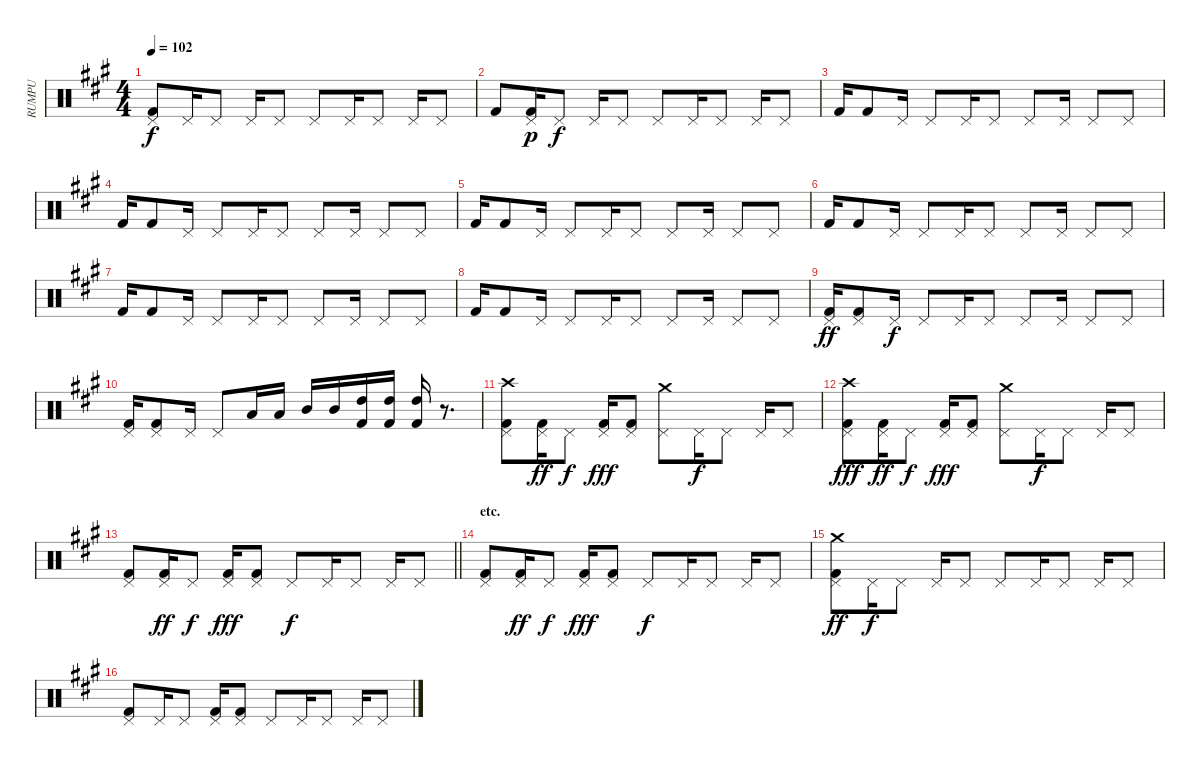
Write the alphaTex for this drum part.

\track ("RUMPU" "RUMPU") {instrument percussion}
\staff {score}
\articulation defaults
\ts (4 4)
\tempo 102
\clef neutral
\ks a
("Kick (hit) 2" "Pedal Hi-Hat (hit)").8{dy f} "Pedal Hi-Hat (hit)".16 "Pedal Hi-Hat (hit)".8 "Pedal Hi-Hat (hit)".16 "Pedal Hi-Hat (hit)".8 "Pedal Hi-Hat (hit)".8 "Pedal Hi-Hat (hit)".16 "Pedal Hi-Hat (hit)".8 "Pedal Hi-Hat (hit)".16 "Pedal Hi-Hat (hit)".8 |
"Kick (hit) 2".8 ("Kick (hit) 2" "Pedal Hi-Hat (hit)").16{dy p} "Pedal Hi-Hat (hit)".8{dy f} "Pedal Hi-Hat (hit)".16 "Pedal Hi-Hat (hit)".8 "Pedal Hi-Hat (hit)".8 "Pedal Hi-Hat (hit)".16 "Pedal Hi-Hat (hit)".8 "Pedal Hi-Hat (hit)".16 "Pedal Hi-Hat (hit)".8 |
"Kick (hit) 2".16 "Kick (hit) 2".8 "Pedal Hi-Hat (hit)".16 "Pedal Hi-Hat (hit)".8 "Pedal Hi-Hat (hit)".16 "Pedal Hi-Hat (hit)".8 "Pedal Hi-Hat (hit)".8 "Pedal Hi-Hat (hit)".16 "Pedal Hi-Hat (hit)".8 "Pedal Hi-Hat (hit)".8 |
"Kick (hit) 2".16 "Kick (hit) 2".8 "Pedal Hi-Hat (hit)".16 "Pedal Hi-Hat (hit)".8 "Pedal Hi-Hat (hit)".16 "Pedal Hi-Hat (hit)".8 "Pedal Hi-Hat (hit)".8 "Pedal Hi-Hat (hit)".16 "Pedal Hi-Hat (hit)".8 "Pedal Hi-Hat (hit)".8 |
"Kick (hit) 2".16 "Kick (hit) 2".8 "Pedal Hi-Hat (hit)".16 "Pedal Hi-Hat (hit)".8 "Pedal Hi-Hat (hit)".16 "Pedal Hi-Hat (hit)".8 "Pedal Hi-Hat (hit)".8 "Pedal Hi-Hat (hit)".16 "Pedal Hi-Hat (hit)".8 "Pedal Hi-Hat (hit)".8 |
"Kick (hit) 2".16 "Kick (hit) 2".8 "Pedal Hi-Hat (hit)".16 "Pedal Hi-Hat (hit)".8 "Pedal Hi-Hat (hit)".16 "Pedal Hi-Hat (hit)".8 "Pedal Hi-Hat (hit)".8 "Pedal Hi-Hat (hit)".16 "Pedal Hi-Hat (hit)".8 "Pedal Hi-Hat (hit)".8 |
"Kick (hit) 2".16 "Kick (hit) 2".8 "Pedal Hi-Hat (hit)".16 "Pedal Hi-Hat (hit)".8 "Pedal Hi-Hat (hit)".16 "Pedal Hi-Hat (hit)".8 "Pedal Hi-Hat (hit)".8 "Pedal Hi-Hat (hit)".16 "Pedal Hi-Hat (hit)".8 "Pedal Hi-Hat (hit)".8 |
"Kick (hit) 2".16 "Kick (hit) 2".8 "Pedal Hi-Hat (hit)".16 "Pedal Hi-Hat (hit)".8 "Pedal Hi-Hat (hit)".16 "Pedal Hi-Hat (hit)".8 "Pedal Hi-Hat (hit)".8 "Pedal Hi-Hat (hit)".16 "Pedal Hi-Hat (hit)".8 "Pedal Hi-Hat (hit)".8 |
("Kick (hit) 2" "Pedal Hi-Hat (hit)").16{dy ff} ("Kick (hit) 2" "Pedal Hi-Hat (hit)").8 "Pedal Hi-Hat (hit)".16{dy f} "Pedal Hi-Hat (hit)".8 "Pedal Hi-Hat (hit)".16 "Pedal Hi-Hat (hit)".8 "Pedal Hi-Hat (hit)".8 "Pedal Hi-Hat (hit)".16 "Pedal Hi-Hat (hit)".8 "Pedal Hi-Hat (hit)".8 |
("Kick (hit) 2" "Pedal Hi-Hat (hit)").16 ("Kick (hit) 2" "Pedal Hi-Hat (hit)").8 "Pedal Hi-Hat (hit)".16 "Pedal Hi-Hat (hit)".8 "Low Tom (hit)".16 "Low Tom (hit)".16 "Mid Tom (hit)".16 "Mid Tom (hit)".16 ("Kick (hit) 2" "High Tom (hit)").16 ("Kick (hit) 2" "High Tom (hit)").16 ("Kick (hit) 2" "High Tom (hit)").16 r.8{d} |
("Crash high (hit)" "Kick (hit) 2" "Pedal Hi-Hat (hit)").8 ("Kick (hit) 2" "Pedal Hi-Hat (hit)").16{dy ff} "Pedal Hi-Hat (hit)".8{dy f} ("Kick (hit) 2" "Pedal Hi-Hat (hit)").16{dy fff} ("Kick (hit) 2" "Pedal Hi-Hat (hit)").8 ("Crash medium (hit)" "Pedal Hi-Hat (hit)").8 "Pedal Hi-Hat (hit)".16{dy f} "Pedal Hi-Hat (hit)".8 "Pedal Hi-Hat (hit)".16 "Pedal Hi-Hat (hit)".8 |
("Crash high (hit)" "Kick (hit) 2" "Pedal Hi-Hat (hit)").8{dy fff} ("Kick (hit) 2" "Pedal Hi-Hat (hit)").16{dy ff} "Pedal Hi-Hat (hit)".8{dy f} ("Kick (hit) 2" "Pedal Hi-Hat (hit)").16{dy fff} ("Kick (hit) 2" "Pedal Hi-Hat (hit)").8 ("Crash medium (hit)" "Pedal Hi-Hat (hit)").8 "Pedal Hi-Hat (hit)".16{dy f} "Pedal Hi-Hat (hit)".8 "Pedal Hi-Hat (hit)".16 "Pedal Hi-Hat (hit)".8 |
\barLineRight lightlight
("Kick (hit) 2" "Pedal Hi-Hat (hit)").8 ("Kick (hit) 2" "Pedal Hi-Hat (hit)").16{dy ff} "Pedal Hi-Hat (hit)".8{dy f} ("Kick (hit) 2" "Pedal Hi-Hat (hit)").16{dy fff} ("Kick (hit) 2" "Pedal Hi-Hat (hit)").8 "Pedal Hi-Hat (hit)".8{dy f} "Pedal Hi-Hat (hit)".16 "Pedal Hi-Hat (hit)".8 "Pedal Hi-Hat (hit)".16 "Pedal Hi-Hat (hit)".8 |
\section ("" "etc.")
("Kick (hit) 2" "Pedal Hi-Hat (hit)").8 ("Kick (hit) 2" "Pedal Hi-Hat (hit)").16{dy ff} "Pedal Hi-Hat (hit)".8{dy f} ("Kick (hit) 2" "Pedal Hi-Hat (hit)").16{dy fff} ("Kick (hit) 2" "Pedal Hi-Hat (hit)").8 "Pedal Hi-Hat (hit)".8{dy f} "Pedal Hi-Hat (hit)".16 "Pedal Hi-Hat (hit)".8 "Pedal Hi-Hat (hit)".16 "Pedal Hi-Hat (hit)".8 |
("Crash medium (hit)" "Kick (hit) 2" "Pedal Hi-Hat (hit)").8{dy ff} "Pedal Hi-Hat (hit)".16{dy f} "Pedal Hi-Hat (hit)".8 "Pedal Hi-Hat (hit)".16 "Pedal Hi-Hat (hit)".8 "Pedal Hi-Hat (hit)".8 "Pedal Hi-Hat (hit)".16 "Pedal Hi-Hat (hit)".8 "Pedal Hi-Hat (hit)".16 "Pedal Hi-Hat (hit)".8 |
("Kick (hit) 2" "Pedal Hi-Hat (hit)").8 "Pedal Hi-Hat (hit)".16 "Pedal Hi-Hat (hit)".8 ("Kick (hit) 2" "Pedal Hi-Hat (hit)").16 ("Kick (hit) 2" "Pedal Hi-Hat (hit)").8 "Pedal Hi-Hat (hit)".8 "Pedal Hi-Hat (hit)".16 "Pedal Hi-Hat (hit)".8 "Pedal Hi-Hat (hit)".16 "Pedal Hi-Hat (hit)".8
